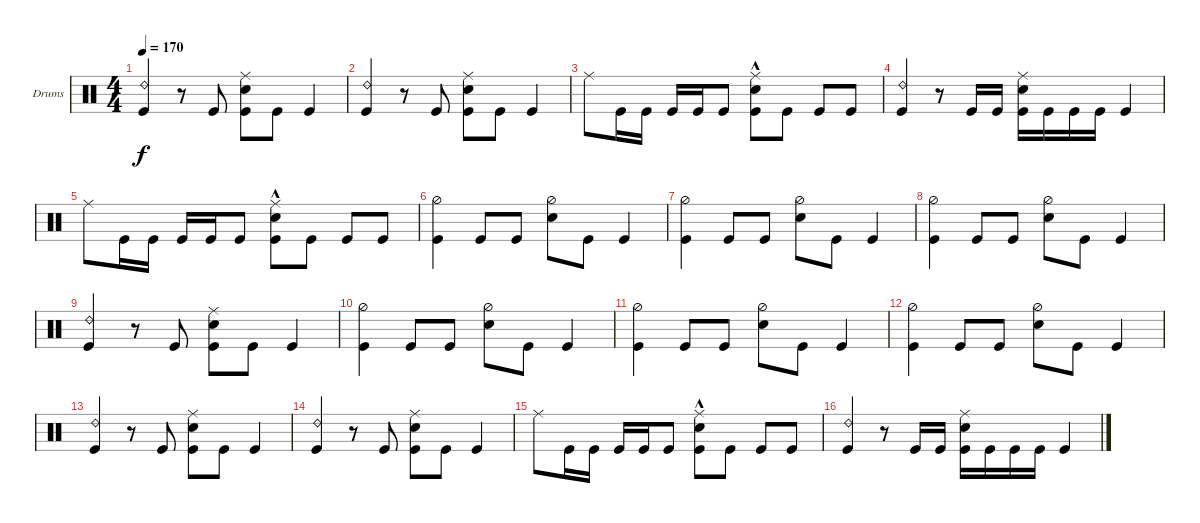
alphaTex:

\defaultSystemsLayout 4
\bracketExtendMode groupsimilarinstruments
\firstSystemTrackNameOrientation horizontal
\otherSystemsTrackNameOrientation horizontal
\track ("Drumkit" "Drums") {instrument percussion}
\staff {score}
\articulation defaults
\ts (4 4)
\tempo 170
\clef neutral
\ks c
("Ride (bell) 2" "Kick (hit)").4{dy f} r.8 "Kick (hit)".8 ("Kick (hit)" "Snare (hit) 2" "Ride (middle)").8 "Kick (hit)".8 "Kick (hit)".4 |
("Ride (bell) 2" "Kick (hit)").4 r.8 "Kick (hit)".8 ("Kick (hit)" "Snare (hit) 2" "Ride (middle)").8 "Kick (hit)".8 "Kick (hit)".4 |
"Ride (middle)".8 "Kick (hit)".16 "Kick (hit)".16 "Kick (hit)".16 "Kick (hit)".16 "Kick (hit)".8 ("Kick (hit)" "Snare (hit) 2"{hac} "Ride (middle)").8 "Kick (hit)".8 "Kick (hit)".8 "Kick (hit)".8 |
("Ride (bell) 2" "Kick (hit)").4 r.8 "Kick (hit)".16 "Kick (hit)".16 ("Kick (hit)" "Snare (hit) 2" "Ride (middle)").16 "Kick (hit)".16 "Kick (hit)".16 "Kick (hit)".16 "Kick (hit)".4 |
"Ride (middle)".8 "Kick (hit)".16 "Kick (hit)".16 "Kick (hit)".16 "Kick (hit)".16 "Kick (hit)".8 ("Kick (hit)" "Snare (hit) 2"{hac} "Ride (middle)").8 "Kick (hit)".8 "Kick (hit)".8 "Kick (hit)".8 |
("Hi-Hat (half)" "Kick (hit)").4 "Kick (hit)".8 "Kick (hit)".8 ("Snare (hit) 2" "Hi-Hat (half)").8 "Kick (hit)".8 "Kick (hit)".4 |
("Hi-Hat (half)" "Kick (hit)").4 "Kick (hit)".8 "Kick (hit)".8 ("Snare (hit) 2" "Hi-Hat (half)").8 "Kick (hit)".8 "Kick (hit)".4 |
("Hi-Hat (half)" "Kick (hit)").4 "Kick (hit)".8 "Kick (hit)".8 ("Snare (hit) 2" "Hi-Hat (half)").8 "Kick (hit)".8 "Kick (hit)".4 |
("Ride (bell) 2" "Kick (hit)").4 r.8 "Kick (hit)".8 ("Kick (hit)" "Snare (hit) 2" "Ride (middle)").8 "Kick (hit)".8 "Kick (hit)".4 |
("Hi-Hat (half)" "Kick (hit)").4 "Kick (hit)".8 "Kick (hit)".8 ("Snare (hit) 2" "Hi-Hat (half)").8 "Kick (hit)".8 "Kick (hit)".4 |
("Hi-Hat (half)" "Kick (hit)").4 "Kick (hit)".8 "Kick (hit)".8 ("Snare (hit) 2" "Hi-Hat (half)").8 "Kick (hit)".8 "Kick (hit)".4 |
("Hi-Hat (half)" "Kick (hit)").4 "Kick (hit)".8 "Kick (hit)".8 ("Snare (hit) 2" "Hi-Hat (half)").8 "Kick (hit)".8 "Kick (hit)".4 |
("Ride (bell) 2" "Kick (hit)").4 r.8 "Kick (hit)".8 ("Kick (hit)" "Snare (hit) 2" "Ride (middle)").8 "Kick (hit)".8 "Kick (hit)".4 |
("Ride (bell) 2" "Kick (hit)").4 r.8 "Kick (hit)".8 ("Kick (hit)" "Snare (hit) 2" "Ride (middle)").8 "Kick (hit)".8 "Kick (hit)".4 |
"Ride (middle)".8 "Kick (hit)".16 "Kick (hit)".16 "Kick (hit)".16 "Kick (hit)".16 "Kick (hit)".8 ("Kick (hit)" "Snare (hit) 2"{hac} "Ride (middle)").8 "Kick (hit)".8 "Kick (hit)".8 "Kick (hit)".8 |
("Ride (bell) 2" "Kick (hit)").4 r.8 "Kick (hit)".16 "Kick (hit)".16 ("Kick (hit)" "Snare (hit) 2" "Ride (middle)").16 "Kick (hit)".16 "Kick (hit)".16 "Kick (hit)".16 "Kick (hit)".4
